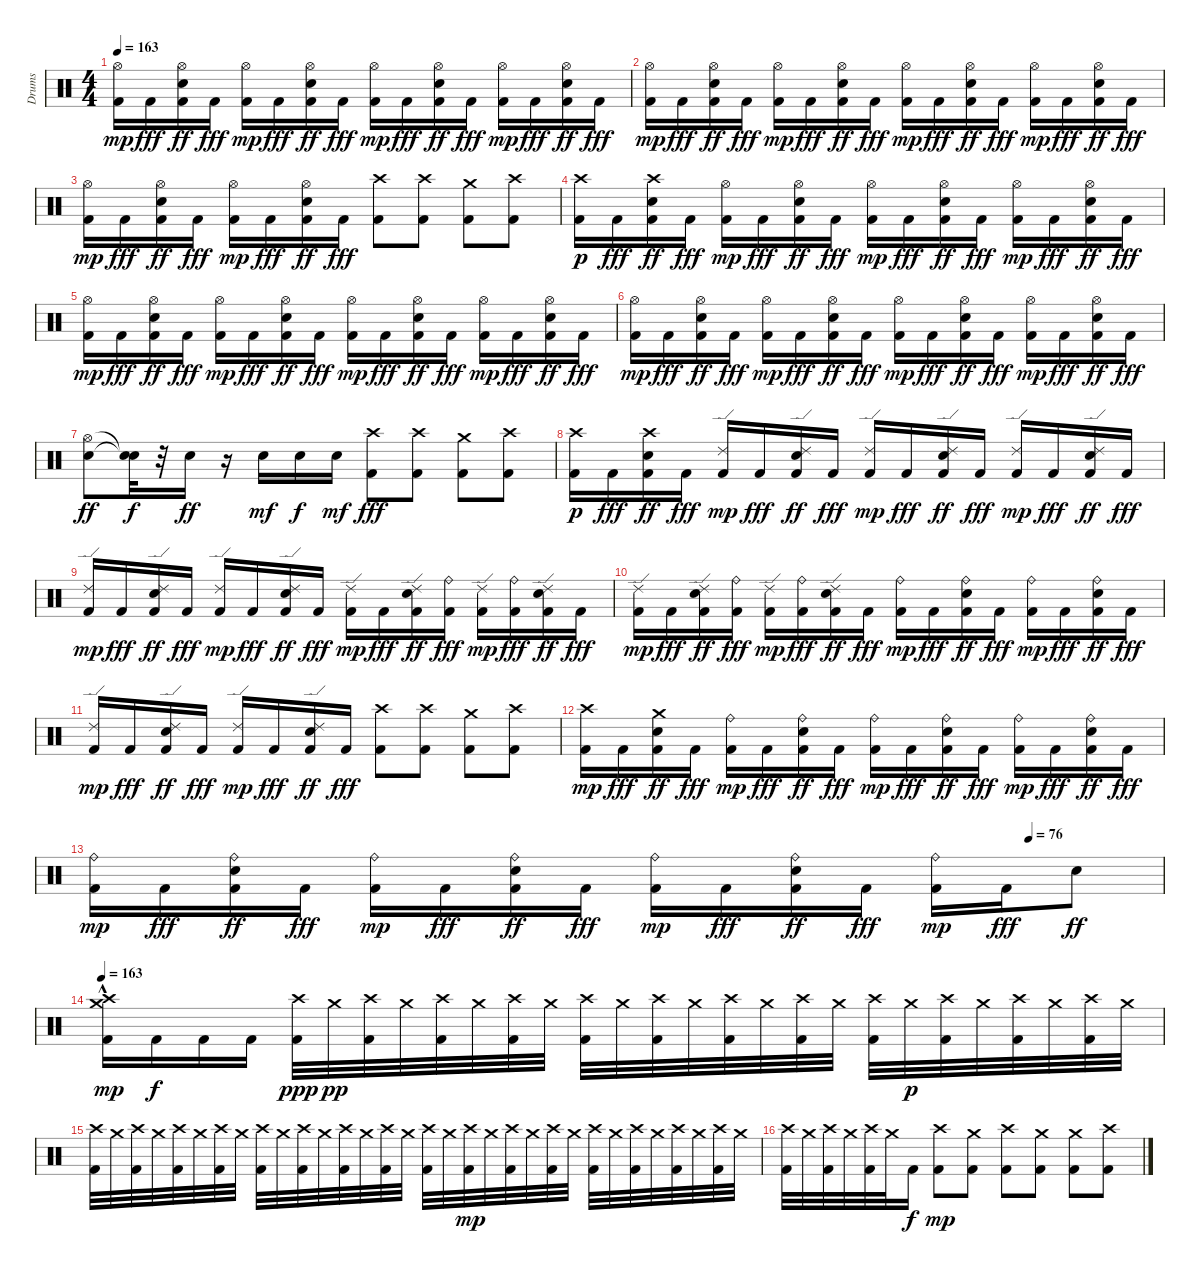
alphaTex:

\track ("Drums" "Drums") {instrument percussion}
\staff {score}
\articulation defaults
\ts (4 4)
\tempo 163
\clef neutral
\ks c
("Kick (hit) 2" "Hi-Hat (open)").16{dy mp} "Kick (hit) 2".16{dy fff} ("Kick (hit) 2" "Hi-Hat (open)" "Snare (hit) 2").16{dy ff} "Kick (hit) 2".16{dy fff} ("Kick (hit) 2" "Hi-Hat (open)").16{dy mp} "Kick (hit) 2".16{dy fff} ("Kick (hit) 2" "Hi-Hat (open)" "Snare (hit) 2").16{dy ff} "Kick (hit) 2".16{dy fff} ("Kick (hit) 2" "Hi-Hat (open)").16{dy mp} "Kick (hit) 2".16{dy fff} ("Kick (hit) 2" "Hi-Hat (open)" "Snare (hit) 2").16{dy ff} "Kick (hit) 2".16{dy fff} ("Kick (hit) 2" "Hi-Hat (open)").16{dy mp} "Kick (hit) 2".16{dy fff} ("Kick (hit) 2" "Hi-Hat (open)" "Snare (hit) 2").16{dy ff} "Kick (hit) 2".16{dy fff} |
("Kick (hit) 2" "Hi-Hat (open)").16{dy mp} "Kick (hit) 2".16{dy fff} ("Kick (hit) 2" "Hi-Hat (open)" "Snare (hit) 2").16{dy ff} "Kick (hit) 2".16{dy fff} ("Kick (hit) 2" "Hi-Hat (open)").16{dy mp} "Kick (hit) 2".16{dy fff} ("Kick (hit) 2" "Hi-Hat (open)" "Snare (hit) 2").16{dy ff} "Kick (hit) 2".16{dy fff} ("Kick (hit) 2" "Hi-Hat (open)").16{dy mp} "Kick (hit) 2".16{dy fff} ("Kick (hit) 2" "Hi-Hat (open)" "Snare (hit) 2").16{dy ff} "Kick (hit) 2".16{dy fff} ("Kick (hit) 2" "Hi-Hat (open)").16{dy mp} "Kick (hit) 2".16{dy fff} ("Kick (hit) 2" "Hi-Hat (open)" "Snare (hit) 2").16{dy ff} "Kick (hit) 2".16{dy fff} |
("Kick (hit) 2" "Hi-Hat (open)").16{dy mp} "Kick (hit) 2".16{dy fff} ("Kick (hit) 2" "Hi-Hat (open)" "Snare (hit) 2").16{dy ff} "Kick (hit) 2".16{dy fff} ("Kick (hit) 2" "Hi-Hat (open)").16{dy mp} "Kick (hit) 2".16{dy fff} ("Kick (hit) 2" "Hi-Hat (open)" "Snare (hit) 2").16{dy ff} "Kick (hit) 2".16{dy fff} ("Crash high (hit)" "Kick (hit) 2").8 ("Crash high (hit)" "Kick (hit) 2").8 ("Crash medium (hit)" "Kick (hit) 2").8 ("Crash high (hit)" "Kick (hit) 2").8 |
("Kick (hit) 2" "Crash high (hit)").16{dy p} "Kick (hit) 2".16{dy fff} ("Kick (hit) 2" "Crash high (hit)" "Snare (hit) 2").16{dy ff} "Kick (hit) 2".16{dy fff} ("Kick (hit) 2" "Hi-Hat (open)").16{dy mp} "Kick (hit) 2".16{dy fff} ("Kick (hit) 2" "Hi-Hat (open)" "Snare (hit) 2").16{dy ff} "Kick (hit) 2".16{dy fff} ("Kick (hit) 2" "Hi-Hat (open)").16{dy mp} "Kick (hit) 2".16{dy fff} ("Kick (hit) 2" "Hi-Hat (open)" "Snare (hit) 2").16{dy ff} "Kick (hit) 2".16{dy fff} ("Kick (hit) 2" "Hi-Hat (open)").16{dy mp} "Kick (hit) 2".16{dy fff} ("Kick (hit) 2" "Hi-Hat (open)" "Snare (hit) 2").16{dy ff} "Kick (hit) 2".16{dy fff} |
("Kick (hit) 2" "Hi-Hat (open)").16{dy mp} "Kick (hit) 2".16{dy fff} ("Kick (hit) 2" "Hi-Hat (open)" "Snare (hit) 2").16{dy ff} "Kick (hit) 2".16{dy fff} ("Kick (hit) 2" "Hi-Hat (open)").16{dy mp} "Kick (hit) 2".16{dy fff} ("Kick (hit) 2" "Hi-Hat (open)" "Snare (hit) 2").16{dy ff} "Kick (hit) 2".16{dy fff} ("Kick (hit) 2" "Hi-Hat (open)").16{dy mp} "Kick (hit) 2".16{dy fff} ("Kick (hit) 2" "Hi-Hat (open)" "Snare (hit) 2").16{dy ff} "Kick (hit) 2".16{dy fff} ("Kick (hit) 2" "Hi-Hat (open)").16{dy mp} "Kick (hit) 2".16{dy fff} ("Kick (hit) 2" "Hi-Hat (open)" "Snare (hit) 2").16{dy ff} "Kick (hit) 2".16{dy fff} |
("Kick (hit) 2" "Hi-Hat (open)").16{dy mp} "Kick (hit) 2".16{dy fff} ("Kick (hit) 2" "Hi-Hat (open)" "Snare (hit) 2").16{dy ff} "Kick (hit) 2".16{dy fff} ("Kick (hit) 2" "Hi-Hat (open)").16{dy mp} "Kick (hit) 2".16{dy fff} ("Kick (hit) 2" "Hi-Hat (open)" "Snare (hit) 2").16{dy ff} "Kick (hit) 2".16{dy fff} ("Kick (hit) 2" "Hi-Hat (open)").16{dy mp} "Kick (hit) 2".16{dy fff} ("Kick (hit) 2" "Hi-Hat (open)" "Snare (hit) 2").16{dy ff} "Kick (hit) 2".16{dy fff} ("Kick (hit) 2" "Hi-Hat (open)").16{dy mp} "Kick (hit) 2".16{dy fff} ("Kick (hit) 2" "Hi-Hat (open)" "Snare (hit) 2").16{dy ff} "Kick (hit) 2".16{dy fff} |
("Hi-Hat (open)" "Snare (hit) 2").8{dy ff} ("Snare (hit)"{t} "Snare (hit)"{t}).32{dy f} r.32 "Snare (hit) 2".16{dy ff} r.16 "Snare (hit) 2".16{dy mf} "Snare (hit) 2".16{dy f} "Snare (hit) 2".16{dy mf} ("Crash high (hit)" "Kick (hit) 2").8{dy fff} ("Crash high (hit)" "Kick (hit) 2").8 ("Crash medium (hit)" "Kick (hit) 2").8 ("Crash high (hit)" "Kick (hit) 2").8 |
("Kick (hit) 2" "Crash high (hit)").16{dy p} "Kick (hit) 2".16{dy fff} ("Kick (hit) 2" "Crash high (hit)" "Snare (hit) 2").16{dy ff} "Kick (hit) 2".16{dy fff} ("Kick (hit) 2" "Ride (edge) 2").16{dy mp} "Kick (hit) 2".16{dy fff} ("Kick (hit) 2" "Ride (edge) 2" "Snare (hit) 2").16{dy ff} "Kick (hit) 2".16{dy fff} ("Kick (hit) 2" "Ride (edge) 2").16{dy mp} "Kick (hit) 2".16{dy fff} ("Kick (hit) 2" "Ride (edge) 2" "Snare (hit) 2").16{dy ff} "Kick (hit) 2".16{dy fff} ("Kick (hit) 2" "Ride (edge) 2").16{dy mp} "Kick (hit) 2".16{dy fff} ("Kick (hit) 2" "Ride (edge) 2" "Snare (hit) 2").16{dy ff} "Kick (hit) 2".16{dy fff} |
("Kick (hit) 2" "Ride (edge) 2").16{dy mp} "Kick (hit) 2".16{dy fff} ("Kick (hit) 2" "Ride (edge) 2" "Snare (hit) 2").16{dy ff} "Kick (hit) 2".16{dy fff} ("Kick (hit) 2" "Ride (edge) 2").16{dy mp} "Kick (hit) 2".16{dy fff} ("Kick (hit) 2" "Ride (edge) 2" "Snare (hit) 2").16{dy ff} "Kick (hit) 2".16{dy fff} ("Kick (hit) 2" "Ride (edge) 2").16{dy mp} "Kick (hit) 2".16{dy fff} ("Kick (hit) 2" "Ride (edge) 2" "Snare (hit) 2").16{dy ff} ("Kick (hit) 2" "Ride (bell)").16{dy fff} ("Kick (hit) 2" "Ride (edge) 2").16{dy mp} ("Kick (hit) 2" "Ride (bell)").16{dy fff} ("Kick (hit) 2" "Ride (edge) 2" "Snare (hit) 2").16{dy ff} "Kick (hit) 2".16{dy fff} |
("Kick (hit) 2" "Ride (edge) 2").16{dy mp} "Kick (hit) 2".16{dy fff} ("Kick (hit) 2" "Ride (edge) 2" "Snare (hit) 2").16{dy ff} ("Kick (hit) 2" "Ride (bell)").16{dy fff} ("Kick (hit) 2" "Ride (edge) 2").16{dy mp} ("Kick (hit) 2" "Ride (bell)").16{dy fff} ("Kick (hit) 2" "Ride (edge) 2" "Snare (hit) 2").16{dy ff} "Kick (hit) 2".16{dy fff} ("Kick (hit) 2" "Ride (bell)").16{dy mp} "Kick (hit) 2".16{dy fff} ("Kick (hit) 2" "Ride (bell)" "Snare (hit) 2").16{dy ff} "Kick (hit) 2".16{dy fff} ("Kick (hit) 2" "Ride (bell)").16{dy mp} "Kick (hit) 2".16{dy fff} ("Kick (hit) 2" "Ride (bell)" "Snare (hit) 2").16{dy ff} "Kick (hit) 2".16{dy fff} |
("Kick (hit) 2" "Ride (edge) 2").16{dy mp} "Kick (hit) 2".16{dy fff} ("Kick (hit) 2" "Ride (edge) 2" "Snare (hit) 2").16{dy ff} "Kick (hit) 2".16{dy fff} ("Kick (hit) 2" "Ride (edge) 2").16{dy mp} "Kick (hit) 2".16{dy fff} ("Kick (hit) 2" "Ride (edge) 2" "Snare (hit) 2").16{dy ff} "Kick (hit) 2".16{dy fff} ("Crash high (hit)" "Kick (hit) 2").8 ("Crash high (hit)" "Kick (hit) 2").8 ("Crash medium (hit)" "Kick (hit) 2").8 ("Crash high (hit)" "Kick (hit) 2").8 |
("Kick (hit) 2" "Crash high (hit)").16{dy mp} "Kick (hit) 2".16{dy fff} ("Kick (hit) 2" "Crash medium (hit)" "Snare (hit) 2").16{dy ff} "Kick (hit) 2".16{dy fff} ("Kick (hit) 2" "Ride (bell)").16{dy mp} "Kick (hit) 2".16{dy fff} ("Kick (hit) 2" "Ride (bell)" "Snare (hit) 2").16{dy ff} "Kick (hit) 2".16{dy fff} ("Kick (hit) 2" "Ride (bell)").16{dy mp} "Kick (hit) 2".16{dy fff} ("Kick (hit) 2" "Ride (bell)" "Snare (hit) 2").16{dy ff} "Kick (hit) 2".16{dy fff} ("Kick (hit) 2" "Ride (bell)").16{dy mp} "Kick (hit) 2".16{dy fff} ("Kick (hit) 2" "Ride (bell)" "Snare (hit) 2").16{dy ff} "Kick (hit) 2".16{dy fff} |
\tempo (76 0.875)
("Kick (hit) 2" "Ride (bell)").16{dy mp} "Kick (hit) 2".16{dy fff} ("Kick (hit) 2" "Ride (bell)" "Snare (hit) 2").16{dy ff} "Kick (hit) 2".16{dy fff} ("Kick (hit) 2" "Ride (bell)").16{dy mp} "Kick (hit) 2".16{dy fff} ("Kick (hit) 2" "Ride (bell)" "Snare (hit) 2").16{dy ff} "Kick (hit) 2".16{dy fff} ("Kick (hit) 2" "Ride (bell)").16{dy mp} "Kick (hit) 2".16{dy fff} ("Kick (hit) 2" "Ride (bell)" "Snare (hit) 2").16{dy ff} "Kick (hit) 2".16{dy fff} ("Kick (hit) 2" "Ride (bell)").16{dy mp} "Kick (hit) 2".16{dy fff} "Snare (hit) 2".8{dy ff} |
\tempo 163
("Crash high (hit)"{hac} "Crash medium (hit)"{hac} "Kick (hit) 2").16{dy mp} "Kick (hit) 2".16{dy f} "Kick (hit) 2".16 "Kick (hit) 2".16 ("Crash high (hit)" "Kick (hit) 2").32{dy ppp} "Crash medium (hit)".32{dy pp} ("Crash high (hit)" "Kick (hit) 2").32 "Crash medium (hit)".32 ("Crash high (hit)" "Kick (hit) 2").32 "Crash medium (hit)".32 ("Crash high (hit)" "Kick (hit) 2").32 "Crash medium (hit)".32 ("Crash high (hit)" "Kick (hit) 2").32 "Crash medium (hit)".32 ("Crash high (hit)" "Kick (hit) 2").32 "Crash medium (hit)".32 ("Crash high (hit)" "Kick (hit) 2").32 "Crash medium (hit)".32 ("Crash high (hit)" "Kick (hit) 2").32 "Crash medium (hit)".32 ("Crash high (hit)" "Kick (hit) 2").32 "Crash medium (hit)".32{dy p} ("Crash high (hit)" "Kick (hit) 2").32 "Crash medium (hit)".32 ("Crash high (hit)" "Kick (hit) 2").32 "Crash medium (hit)".32 ("Crash high (hit)" "Kick (hit) 2").32 "Crash medium (hit)".32 |
("Crash high (hit)" "Kick (hit) 2").32 "Crash medium (hit)".32 ("Crash high (hit)" "Kick (hit) 2").32 "Crash medium (hit)".32 ("Crash high (hit)" "Kick (hit) 2").32 "Crash medium (hit)".32 ("Crash high (hit)" "Kick (hit) 2").32 "Crash medium (hit)".32 ("Crash high (hit)" "Kick (hit) 2").32 "Crash medium (hit)".32 ("Crash high (hit)" "Kick (hit) 2").32 "Crash medium (hit)".32 ("Crash high (hit)" "Kick (hit) 2").32 "Crash medium (hit)".32 ("Crash high (hit)" "Kick (hit) 2").32 "Crash medium (hit)".32 ("Crash high (hit)" "Kick (hit) 2").32 "Crash medium (hit)".32 ("Crash high (hit)" "Kick (hit) 2").32{dy mp} "Crash medium (hit)".32 ("Crash high (hit)" "Kick (hit) 2").32 "Crash medium (hit)".32 ("Crash high (hit)" "Kick (hit) 2").32 "Crash medium (hit)".32 ("Crash high (hit)" "Kick (hit) 2").32 "Crash medium (hit)".32 ("Crash high (hit)" "Kick (hit) 2").32 "Crash medium (hit)".32 ("Crash high (hit)" "Kick (hit) 2").32 "Crash medium (hit)".32 ("Crash high (hit)" "Kick (hit) 2").32 "Crash medium (hit)".32 |
("Crash high (hit)" "Kick (hit) 2").32 "Crash medium (hit)".32 ("Crash high (hit)" "Kick (hit) 2").32 "Crash medium (hit)".32 ("Crash high (hit)" "Kick (hit) 2").32 "Crash medium (hit)".32 "Kick (hit) 2".16{dy f} ("Kick (hit) 2" "Crash high (hit)").8{dy mp} ("Kick (hit) 2" "Crash medium (hit)").8 ("Kick (hit) 2" "Crash high (hit)").8 ("Kick (hit) 2" "Crash medium (hit)").8 ("Kick (hit) 2" "Crash medium (hit)").8 ("Kick (hit) 2" "Crash high (hit)").8
